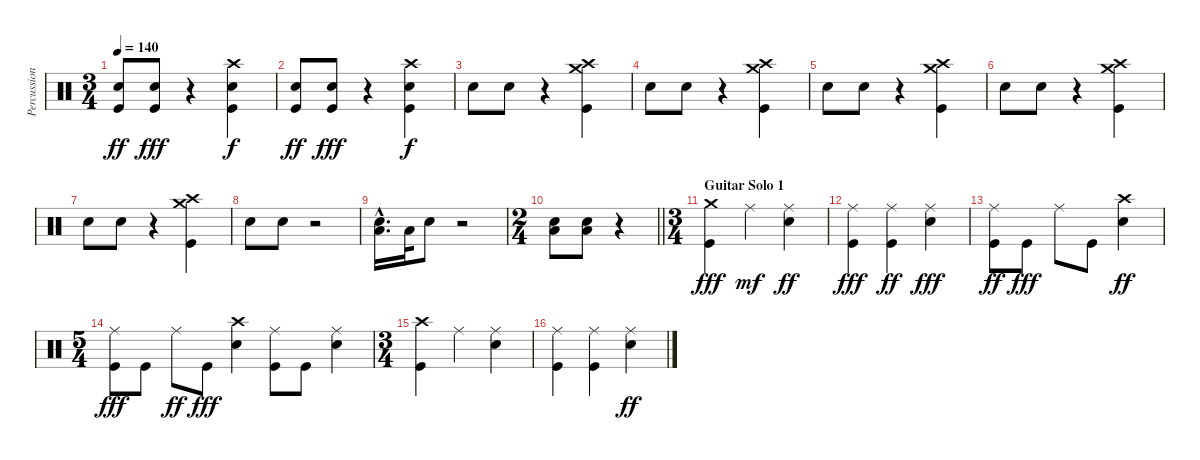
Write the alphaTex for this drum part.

\track ("Percussion" "Percussion") {instrument percussion}
\staff {score}
\articulation defaults
\ts (3 4)
\tempo 140
\clef neutral
\ks c
("Kick (hit)" "Electric Snare (hit)").8{dy ff} ("Kick (hit)" "Electric Snare (hit)").8{dy fff} r.4 ("Crash high (hit)" "Kick (hit)" "Electric Snare (hit)").4{dy f} |
("Kick (hit)" "Electric Snare (hit)").8{dy ff} ("Kick (hit)" "Electric Snare (hit)").8{dy fff} r.4 ("Crash high (hit)" "Kick (hit)" "Electric Snare (hit)").4{dy f} |
"Electric Snare (hit)".8 "Electric Snare (hit)".8 r.4 ("Crash high (hit)" "Kick (hit)" "Crash medium (hit)").4 |
"Electric Snare (hit)".8 "Electric Snare (hit)".8 r.4 ("Crash high (hit)" "Kick (hit)" "Crash medium (hit)").4 |
"Electric Snare (hit)".8 "Electric Snare (hit)".8 r.4 ("Crash high (hit)" "Kick (hit)" "Crash medium (hit)").4 |
"Electric Snare (hit)".8 "Electric Snare (hit)".8 r.4 ("Crash high (hit)" "Kick (hit)" "Crash medium (hit)").4 |
"Electric Snare (hit)".8 "Electric Snare (hit)".8 r.4 ("Crash high (hit)" "Kick (hit)" "Crash medium (hit)").4 |
"Electric Snare (hit)".8 "Electric Snare (hit)".8 r.2 |
("Low Tom (hit)" "Electric Snare (hit)"{hac}).16{d} "Low Tom (hit)".32 "Electric Snare (hit)".8 r.2 |
\ts (2 4)
\barLineRight lightlight
("Electric Snare (hit)" "Low Floor Tom (hit)").8 ("Electric Snare (hit)" "Low Floor Tom (hit)").8 r.4 |
\ts (3 4)
\section ("" "Guitar Solo 1")
("Kick (hit)" "Crash medium (hit)").4{dy fff} "Ride (middle)".4{dy mf} ("Ride (middle)" "Electric Snare (hit)").4{dy ff} |
("Kick (hit)" "Ride (middle)").4{dy fff} ("Kick (hit)" "Ride (middle)").4{dy ff} ("Electric Snare (hit)" "Ride (middle)").4{dy fff} |
("Kick (hit)" "Ride (middle)").8{dy ff} "Kick (hit)".8{dy fff} "Ride (middle)".8 "Kick (hit)".8 ("Crash high (hit)" "Electric Snare (hit)").4{dy ff} |
\ts (5 4)
("Kick (hit)" "Ride (middle)").8{dy fff} "Kick (hit)".8 "Ride (middle)".8{dy ff} "Kick (hit)".8{dy fff} ("Electric Snare (hit)" "Crash high (hit)").4 ("Kick (hit)" "Ride (middle)").8 "Kick (hit)".8 ("Electric Snare (hit)" "Ride (middle)").4 |
\ts (3 4)
("Kick (hit)" "Crash high (hit)").4 "Ride (middle)".4 ("Electric Snare (hit)" "Ride (middle)").4 |
("Kick (hit)" "Ride (middle)").4 ("Ride (middle)" "Kick (hit)").4 ("Ride (middle)" "Electric Snare (hit)").4{dy ff}
